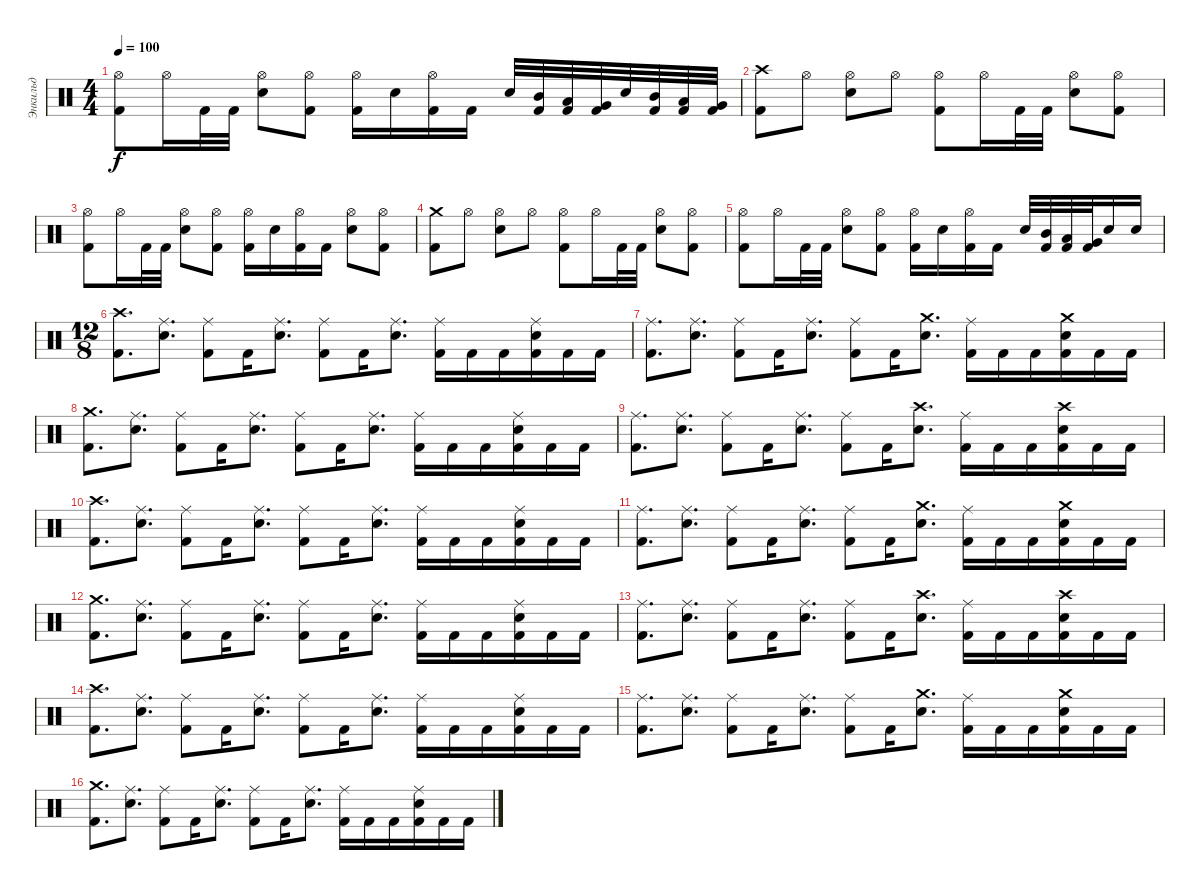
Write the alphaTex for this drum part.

\track ("Энкильд" "Энкильд") {instrument percussion}
\staff {score}
\articulation defaults
\ts (4 4)
\tempo 100
\clef neutral
\ks c
("Hi-Hat (open)" "Kick (hit) 2").8{dy f} "Hi-Hat (open)".16 "Kick (hit) 2".32 "Kick (hit) 2".32 ("Hi-Hat (open)" "Snare (hit) 2").8 ("Hi-Hat (open)" "Kick (hit) 2").8 ("Kick (hit) 2" "Hi-Hat (open)").16 "Snare (hit) 2".16 ("Hi-Hat (open)" "Kick (hit) 2").16 "Kick (hit) 2".16 "Snare (hit) 2".32 ("Kick (hit) 2" "Mid Tom (hit)").32 ("Kick (hit) 2" "Low Tom (hit)").32 ("Kick (hit) 2" "Very Low Tom (hit)").32 "Snare (hit) 2".32 ("Kick (hit) 2" "Mid Tom (hit)").32 ("Kick (hit) 2" "Low Tom (hit)").32 ("Kick (hit) 2" "Very Low Tom (hit)").32 |
("Kick (hit) 2" "Crash high (hit)").8 "Hi-Hat (open)".8 ("Snare (hit) 2" "Hi-Hat (open)").8 "Hi-Hat (open)".8 ("Kick (hit) 2" "Hi-Hat (open)").8 "Hi-Hat (open)".16 "Kick (hit) 2".32 "Kick (hit) 2".32 ("Snare (hit) 2" "Hi-Hat (open)").8 ("Hi-Hat (open)" "Kick (hit) 2").8 |
("Hi-Hat (open)" "Kick (hit) 2").8 "Hi-Hat (open)".16 "Kick (hit) 2".32 "Kick (hit) 2".32 ("Hi-Hat (open)" "Snare (hit) 2").8 ("Hi-Hat (open)" "Kick (hit) 2").8 ("Kick (hit) 2" "Hi-Hat (open)").16 "Snare (hit) 2".16 ("Hi-Hat (open)" "Kick (hit) 2").16 "Kick (hit) 2".16 ("Hi-Hat (open)" "Snare (hit) 2").8 ("Hi-Hat (open)" "Kick (hit) 2").8 |
("Kick (hit) 2" "Crash medium (hit)").8 "Hi-Hat (open)".8 ("Snare (hit) 2" "Hi-Hat (open)").8 "Hi-Hat (open)".8 ("Kick (hit) 2" "Hi-Hat (open)").8 "Hi-Hat (open)".16 "Kick (hit) 2".32 "Kick (hit) 2".32 ("Snare (hit) 2" "Hi-Hat (open)").8 ("Hi-Hat (open)" "Kick (hit) 2").8 |
("Hi-Hat (open)" "Kick (hit) 2").8 "Hi-Hat (open)".16 "Kick (hit) 2".32 "Kick (hit) 2".32 ("Hi-Hat (open)" "Snare (hit) 2").8 ("Hi-Hat (open)" "Kick (hit) 2").8 ("Kick (hit) 2" "Hi-Hat (open)").16 "Snare (hit) 2".16 ("Hi-Hat (open)" "Kick (hit) 2").16 "Kick (hit) 2".16 "Snare (hit) 2".32 ("Kick (hit) 2" "Mid Tom (hit)").32 ("Kick (hit) 2" "Low Tom (hit)").32 ("Kick (hit) 2" "Very Low Tom (hit)").32 "Snare (hit) 2".16 "Snare (hit) 2".16 |
\ts (12 8)
("Crash high (hit)" "Kick (hit) 2").8{d} ("Ride (middle)" "Snare (hit) 2").8{d} ("Ride (middle)" "Kick (hit) 2").8 "Kick (hit) 2".16 ("Ride (middle)" "Snare (hit) 2").8{d} ("Ride (middle)" "Kick (hit) 2").8 "Kick (hit) 2".16 ("Ride (middle)" "Snare (hit) 2").8{d} ("Ride (middle)" "Kick (hit) 2").16 "Kick (hit) 2".16 "Kick (hit) 2".16 ("Ride (middle)" "Kick (hit) 2" "Snare (hit) 2").16 "Kick (hit) 2".16 "Kick (hit) 2".16 |
("Ride (middle)" "Kick (hit) 2").8{d} ("Ride (middle)" "Snare (hit) 2").8{d} ("Ride (middle)" "Kick (hit) 2").8 "Kick (hit) 2".16 ("Ride (middle)" "Snare (hit) 2").8{d} ("Ride (middle)" "Kick (hit) 2").8 "Kick (hit) 2".16 ("Crash medium (hit)" "Snare (hit) 2").8{d} ("Ride (middle)" "Kick (hit) 2").16 "Kick (hit) 2".16 "Kick (hit) 2".16 ("Crash medium (hit)" "Kick (hit) 2" "Snare (hit) 2").16 "Kick (hit) 2".16 "Kick (hit) 2".16 |
("Crash medium (hit)" "Kick (hit) 2").8{d} ("Ride (middle)" "Snare (hit) 2").8{d} ("Ride (middle)" "Kick (hit) 2").8 "Kick (hit) 2".16 ("Ride (middle)" "Snare (hit) 2").8{d} ("Ride (middle)" "Kick (hit) 2").8 "Kick (hit) 2".16 ("Ride (middle)" "Snare (hit) 2").8{d} ("Ride (middle)" "Kick (hit) 2").16 "Kick (hit) 2".16 "Kick (hit) 2".16 ("Ride (middle)" "Kick (hit) 2" "Snare (hit) 2").16 "Kick (hit) 2".16 "Kick (hit) 2".16 |
("Ride (middle)" "Kick (hit) 2").8{d} ("Ride (middle)" "Snare (hit) 2").8{d} ("Ride (middle)" "Kick (hit) 2").8 "Kick (hit) 2".16 ("Ride (middle)" "Snare (hit) 2").8{d} ("Ride (middle)" "Kick (hit) 2").8 "Kick (hit) 2".16 ("Crash high (hit)" "Snare (hit) 2").8{d} ("Ride (middle)" "Kick (hit) 2").16 "Kick (hit) 2".16 "Kick (hit) 2".16 ("Crash high (hit)" "Kick (hit) 2" "Snare (hit) 2").16 "Kick (hit) 2".16 "Kick (hit) 2".16 |
("Crash high (hit)" "Kick (hit) 2").8{d} ("Ride (middle)" "Snare (hit) 2").8{d} ("Ride (middle)" "Kick (hit) 2").8 "Kick (hit) 2".16 ("Ride (middle)" "Snare (hit) 2").8{d} ("Ride (middle)" "Kick (hit) 2").8 "Kick (hit) 2".16 ("Ride (middle)" "Snare (hit) 2").8{d} ("Ride (middle)" "Kick (hit) 2").16 "Kick (hit) 2".16 "Kick (hit) 2".16 ("Ride (middle)" "Kick (hit) 2" "Snare (hit) 2").16 "Kick (hit) 2".16 "Kick (hit) 2".16 |
("Ride (middle)" "Kick (hit) 2").8{d} ("Ride (middle)" "Snare (hit) 2").8{d} ("Ride (middle)" "Kick (hit) 2").8 "Kick (hit) 2".16 ("Ride (middle)" "Snare (hit) 2").8{d} ("Ride (middle)" "Kick (hit) 2").8 "Kick (hit) 2".16 ("Crash medium (hit)" "Snare (hit) 2").8{d} ("Ride (middle)" "Kick (hit) 2").16 "Kick (hit) 2".16 "Kick (hit) 2".16 ("Crash medium (hit)" "Kick (hit) 2" "Snare (hit) 2").16 "Kick (hit) 2".16 "Kick (hit) 2".16 |
("Crash medium (hit)" "Kick (hit) 2").8{d} ("Ride (middle)" "Snare (hit) 2").8{d} ("Ride (middle)" "Kick (hit) 2").8 "Kick (hit) 2".16 ("Ride (middle)" "Snare (hit) 2").8{d} ("Ride (middle)" "Kick (hit) 2").8 "Kick (hit) 2".16 ("Ride (middle)" "Snare (hit) 2").8{d} ("Ride (middle)" "Kick (hit) 2").16 "Kick (hit) 2".16 "Kick (hit) 2".16 ("Ride (middle)" "Kick (hit) 2" "Snare (hit) 2").16 "Kick (hit) 2".16 "Kick (hit) 2".16 |
("Ride (middle)" "Kick (hit) 2").8{d} ("Ride (middle)" "Snare (hit) 2").8{d} ("Ride (middle)" "Kick (hit) 2").8 "Kick (hit) 2".16 ("Ride (middle)" "Snare (hit) 2").8{d} ("Ride (middle)" "Kick (hit) 2").8 "Kick (hit) 2".16 ("Crash high (hit)" "Snare (hit) 2").8{d} ("Ride (middle)" "Kick (hit) 2").16 "Kick (hit) 2".16 "Kick (hit) 2".16 ("Crash high (hit)" "Kick (hit) 2" "Snare (hit) 2").16 "Kick (hit) 2".16 "Kick (hit) 2".16 |
("Crash high (hit)" "Kick (hit) 2").8{d} ("Ride (middle)" "Snare (hit) 2").8{d} ("Ride (middle)" "Kick (hit) 2").8 "Kick (hit) 2".16 ("Ride (middle)" "Snare (hit) 2").8{d} ("Ride (middle)" "Kick (hit) 2").8 "Kick (hit) 2".16 ("Ride (middle)" "Snare (hit) 2").8{d} ("Ride (middle)" "Kick (hit) 2").16 "Kick (hit) 2".16 "Kick (hit) 2".16 ("Ride (middle)" "Kick (hit) 2" "Snare (hit) 2").16 "Kick (hit) 2".16 "Kick (hit) 2".16 |
("Ride (middle)" "Kick (hit) 2").8{d} ("Ride (middle)" "Snare (hit) 2").8{d} ("Ride (middle)" "Kick (hit) 2").8 "Kick (hit) 2".16 ("Ride (middle)" "Snare (hit) 2").8{d} ("Ride (middle)" "Kick (hit) 2").8 "Kick (hit) 2".16 ("Crash medium (hit)" "Snare (hit) 2").8{d} ("Ride (middle)" "Kick (hit) 2").16 "Kick (hit) 2".16 "Kick (hit) 2".16 ("Crash medium (hit)" "Kick (hit) 2" "Snare (hit) 2").16 "Kick (hit) 2".16 "Kick (hit) 2".16 |
("Crash medium (hit)" "Kick (hit) 2").8{d} ("Ride (middle)" "Snare (hit) 2").8{d} ("Ride (middle)" "Kick (hit) 2").8 "Kick (hit) 2".16 ("Ride (middle)" "Snare (hit) 2").8{d} ("Ride (middle)" "Kick (hit) 2").8 "Kick (hit) 2".16 ("Ride (middle)" "Snare (hit) 2").8{d} ("Ride (middle)" "Kick (hit) 2").16 "Kick (hit) 2".16 "Kick (hit) 2".16 ("Ride (middle)" "Kick (hit) 2" "Snare (hit) 2").16 "Kick (hit) 2".16 "Kick (hit) 2".16
